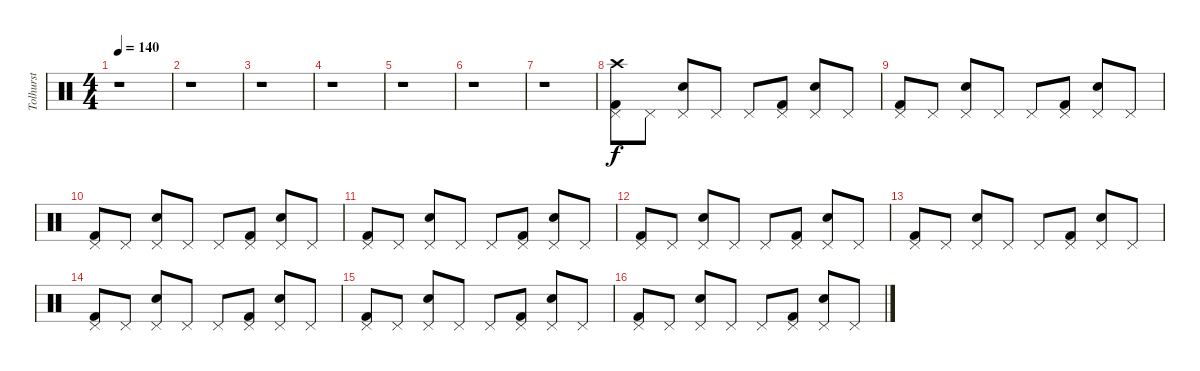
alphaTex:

\track ("Tolhurst" "Tolhurst") {instrument percussion}
\staff {score}
\articulation defaults
\ts (4 4)
\tempo 140
\clef neutral
\ks c
r.1{dy f} |
r.1 |
r.1 |
r.1 |
r.1 |
r.1 |
r.1 |
("Kick (hit) 2" "Pedal Hi-Hat (hit)" "Crash high (hit)").8 "Pedal Hi-Hat (hit)".8 ("Snare (hit) 2" "Pedal Hi-Hat (hit)").8 "Pedal Hi-Hat (hit)".8 "Pedal Hi-Hat (hit)".8 ("Kick (hit) 2" "Pedal Hi-Hat (hit)").8 ("Snare (hit) 2" "Pedal Hi-Hat (hit)").8 "Pedal Hi-Hat (hit)".8 |
("Kick (hit) 2" "Pedal Hi-Hat (hit)").8 "Pedal Hi-Hat (hit)".8 ("Snare (hit) 2" "Pedal Hi-Hat (hit)").8 "Pedal Hi-Hat (hit)".8 "Pedal Hi-Hat (hit)".8 ("Kick (hit) 2" "Pedal Hi-Hat (hit)").8 ("Snare (hit) 2" "Pedal Hi-Hat (hit)").8 "Pedal Hi-Hat (hit)".8 |
("Kick (hit) 2" "Pedal Hi-Hat (hit)").8 "Pedal Hi-Hat (hit)".8 ("Snare (hit) 2" "Pedal Hi-Hat (hit)").8 "Pedal Hi-Hat (hit)".8 "Pedal Hi-Hat (hit)".8 ("Kick (hit) 2" "Pedal Hi-Hat (hit)").8 ("Snare (hit) 2" "Pedal Hi-Hat (hit)").8 "Pedal Hi-Hat (hit)".8 |
("Kick (hit) 2" "Pedal Hi-Hat (hit)").8 "Pedal Hi-Hat (hit)".8 ("Snare (hit) 2" "Pedal Hi-Hat (hit)").8 "Pedal Hi-Hat (hit)".8 "Pedal Hi-Hat (hit)".8 ("Kick (hit) 2" "Pedal Hi-Hat (hit)").8 ("Snare (hit) 2" "Pedal Hi-Hat (hit)").8 "Pedal Hi-Hat (hit)".8 |
("Kick (hit) 2" "Pedal Hi-Hat (hit)").8 "Pedal Hi-Hat (hit)".8 ("Snare (hit) 2" "Pedal Hi-Hat (hit)").8 "Pedal Hi-Hat (hit)".8 "Pedal Hi-Hat (hit)".8 ("Kick (hit) 2" "Pedal Hi-Hat (hit)").8 ("Snare (hit) 2" "Pedal Hi-Hat (hit)").8 "Pedal Hi-Hat (hit)".8 |
("Kick (hit) 2" "Pedal Hi-Hat (hit)").8 "Pedal Hi-Hat (hit)".8 ("Snare (hit) 2" "Pedal Hi-Hat (hit)").8 "Pedal Hi-Hat (hit)".8 "Pedal Hi-Hat (hit)".8 ("Kick (hit) 2" "Pedal Hi-Hat (hit)").8 ("Snare (hit) 2" "Pedal Hi-Hat (hit)").8 "Pedal Hi-Hat (hit)".8 |
("Kick (hit) 2" "Pedal Hi-Hat (hit)").8 "Pedal Hi-Hat (hit)".8 ("Snare (hit) 2" "Pedal Hi-Hat (hit)").8 "Pedal Hi-Hat (hit)".8 "Pedal Hi-Hat (hit)".8 ("Kick (hit) 2" "Pedal Hi-Hat (hit)").8 ("Snare (hit) 2" "Pedal Hi-Hat (hit)").8 "Pedal Hi-Hat (hit)".8 |
("Kick (hit) 2" "Pedal Hi-Hat (hit)").8 "Pedal Hi-Hat (hit)".8 ("Snare (hit) 2" "Pedal Hi-Hat (hit)").8 "Pedal Hi-Hat (hit)".8 "Pedal Hi-Hat (hit)".8 ("Kick (hit) 2" "Pedal Hi-Hat (hit)").8 ("Snare (hit) 2" "Pedal Hi-Hat (hit)").8 "Pedal Hi-Hat (hit)".8 |
("Kick (hit) 2" "Pedal Hi-Hat (hit)").8 "Pedal Hi-Hat (hit)".8 ("Snare (hit) 2" "Pedal Hi-Hat (hit)").8 "Pedal Hi-Hat (hit)".8 "Pedal Hi-Hat (hit)".8 ("Kick (hit) 2" "Pedal Hi-Hat (hit)").8 ("Snare (hit) 2" "Pedal Hi-Hat (hit)").8 "Pedal Hi-Hat (hit)".8
